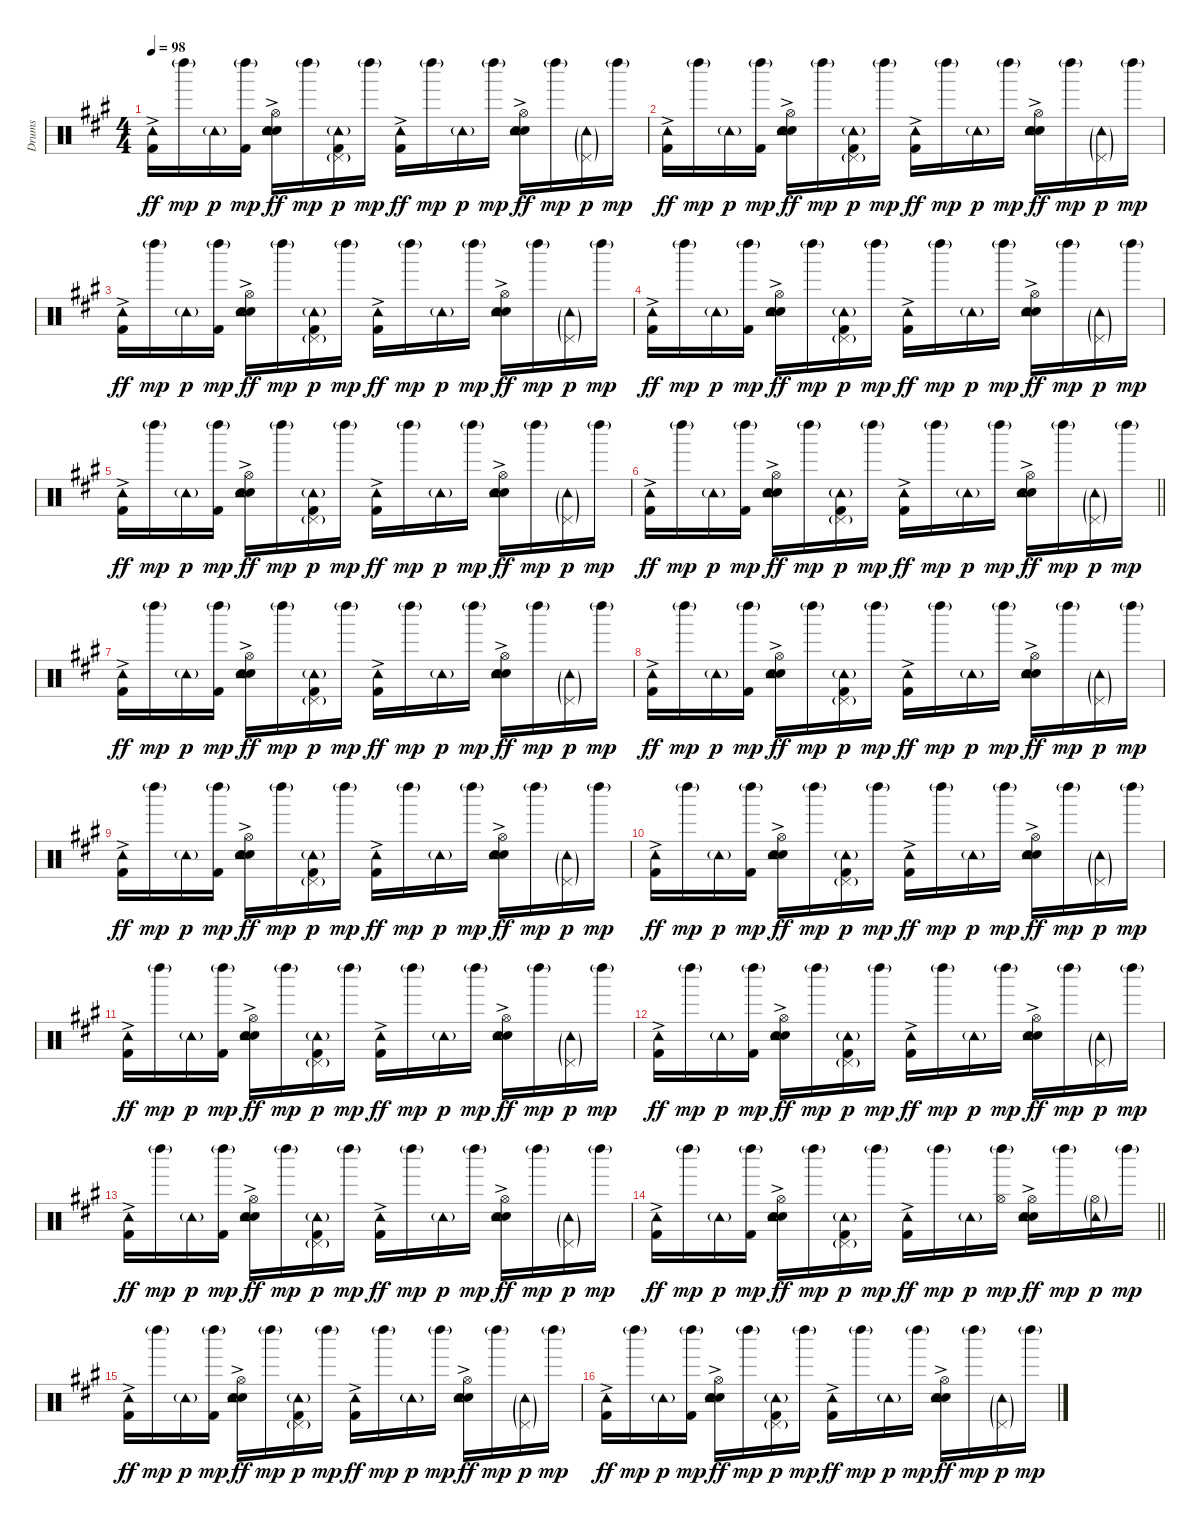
\track ("Drums" "Drums") {instrument percussion}
\staff {score}
\articulation defaults
\ts (4 4)
\tempo 98
\clef neutral
\ks a
("Kick (hit) 2"{ac} "Tambourine (hit)").16{dy ff} "Left Maraca (hit)"{g}.16{dy mp} "Tambourine (hit)"{g}.16{dy p} ("Kick (hit) 2" "Left Maraca (hit)"{g}).16{dy mp} ("Snare (hit) 2"{ac} "Electric Snare (hit)" "Hi-Hat (open)" "Tambourine (hit)").16{dy ff} "Left Maraca (hit)"{g}.16{dy mp} ("Kick (hit) 2" "Pedal Hi-Hat (hit)"{g} "Tambourine (hit)"{g}).16{dy p} "Left Maraca (hit)"{g}.16{dy mp} ("Kick (hit) 2"{ac} "Tambourine (hit)").16{dy ff} "Left Maraca (hit)"{g}.16{dy mp} "Tambourine (hit)"{g}.16{dy p} "Left Maraca (hit)"{g}.16{dy mp} ("Snare (hit) 2"{ac} "Electric Snare (hit)" "Hi-Hat (open)" "Tambourine (hit)").16{dy ff} "Left Maraca (hit)"{g}.16{dy mp} ("Pedal Hi-Hat (hit)"{g} "Tambourine (hit)"{g}).16{dy p} "Left Maraca (hit)"{g}.16{dy mp} |
("Kick (hit) 2"{ac} "Tambourine (hit)").16{dy ff} "Left Maraca (hit)"{g}.16{dy mp} "Tambourine (hit)"{g}.16{dy p} ("Kick (hit) 2" "Left Maraca (hit)"{g}).16{dy mp} ("Snare (hit) 2"{ac} "Electric Snare (hit)" "Hi-Hat (open)" "Tambourine (hit)").16{dy ff} "Left Maraca (hit)"{g}.16{dy mp} ("Kick (hit) 2" "Pedal Hi-Hat (hit)"{g} "Tambourine (hit)"{g}).16{dy p} "Left Maraca (hit)"{g}.16{dy mp} ("Kick (hit) 2"{ac} "Tambourine (hit)").16{dy ff} "Left Maraca (hit)"{g}.16{dy mp} "Tambourine (hit)"{g}.16{dy p} "Left Maraca (hit)"{g}.16{dy mp} ("Snare (hit) 2"{ac} "Electric Snare (hit)" "Hi-Hat (open)" "Tambourine (hit)").16{dy ff} "Left Maraca (hit)"{g}.16{dy mp} ("Pedal Hi-Hat (hit)"{g} "Tambourine (hit)"{g}).16{dy p} "Left Maraca (hit)"{g}.16{dy mp} |
("Kick (hit) 2"{ac} "Tambourine (hit)").16{dy ff} "Left Maraca (hit)"{g}.16{dy mp} "Tambourine (hit)"{g}.16{dy p} ("Kick (hit) 2" "Left Maraca (hit)"{g}).16{dy mp} ("Snare (hit) 2"{ac} "Electric Snare (hit)" "Hi-Hat (open)" "Tambourine (hit)").16{dy ff} "Left Maraca (hit)"{g}.16{dy mp} ("Kick (hit) 2" "Pedal Hi-Hat (hit)"{g} "Tambourine (hit)"{g}).16{dy p} "Left Maraca (hit)"{g}.16{dy mp} ("Kick (hit) 2"{ac} "Tambourine (hit)").16{dy ff} "Left Maraca (hit)"{g}.16{dy mp} "Tambourine (hit)"{g}.16{dy p} "Left Maraca (hit)"{g}.16{dy mp} ("Snare (hit) 2"{ac} "Electric Snare (hit)" "Hi-Hat (open)" "Tambourine (hit)").16{dy ff} "Left Maraca (hit)"{g}.16{dy mp} ("Pedal Hi-Hat (hit)"{g} "Tambourine (hit)"{g}).16{dy p} "Left Maraca (hit)"{g}.16{dy mp} |
("Kick (hit) 2"{ac} "Tambourine (hit)").16{dy ff} "Left Maraca (hit)"{g}.16{dy mp} "Tambourine (hit)"{g}.16{dy p} ("Kick (hit) 2" "Left Maraca (hit)"{g}).16{dy mp} ("Snare (hit) 2"{ac} "Electric Snare (hit)" "Hi-Hat (open)" "Tambourine (hit)").16{dy ff} "Left Maraca (hit)"{g}.16{dy mp} ("Kick (hit) 2" "Pedal Hi-Hat (hit)"{g} "Tambourine (hit)"{g}).16{dy p} "Left Maraca (hit)"{g}.16{dy mp} ("Kick (hit) 2"{ac} "Tambourine (hit)").16{dy ff} "Left Maraca (hit)"{g}.16{dy mp} "Tambourine (hit)"{g}.16{dy p} "Left Maraca (hit)"{g}.16{dy mp} ("Snare (hit) 2"{ac} "Electric Snare (hit)" "Hi-Hat (open)" "Tambourine (hit)").16{dy ff} "Left Maraca (hit)"{g}.16{dy mp} ("Pedal Hi-Hat (hit)"{g} "Tambourine (hit)"{g}).16{dy p} "Left Maraca (hit)"{g}.16{dy mp} |
("Kick (hit) 2"{ac} "Tambourine (hit)").16{dy ff} "Left Maraca (hit)"{g}.16{dy mp} "Tambourine (hit)"{g}.16{dy p} ("Kick (hit) 2" "Left Maraca (hit)"{g}).16{dy mp} ("Snare (hit) 2"{ac} "Electric Snare (hit)" "Hi-Hat (open)" "Tambourine (hit)").16{dy ff} "Left Maraca (hit)"{g}.16{dy mp} ("Kick (hit) 2" "Pedal Hi-Hat (hit)"{g} "Tambourine (hit)"{g}).16{dy p} "Left Maraca (hit)"{g}.16{dy mp} ("Kick (hit) 2"{ac} "Tambourine (hit)").16{dy ff} "Left Maraca (hit)"{g}.16{dy mp} "Tambourine (hit)"{g}.16{dy p} "Left Maraca (hit)"{g}.16{dy mp} ("Snare (hit) 2"{ac} "Electric Snare (hit)" "Hi-Hat (open)" "Tambourine (hit)").16{dy ff} "Left Maraca (hit)"{g}.16{dy mp} ("Pedal Hi-Hat (hit)"{g} "Tambourine (hit)"{g}).16{dy p} "Left Maraca (hit)"{g}.16{dy mp} |
\barLineRight lightlight
("Kick (hit) 2"{ac} "Tambourine (hit)").16{dy ff} "Left Maraca (hit)"{g}.16{dy mp} "Tambourine (hit)"{g}.16{dy p} ("Kick (hit) 2" "Left Maraca (hit)"{g}).16{dy mp} ("Snare (hit) 2"{ac} "Electric Snare (hit)" "Hi-Hat (open)" "Tambourine (hit)").16{dy ff} "Left Maraca (hit)"{g}.16{dy mp} ("Kick (hit) 2" "Pedal Hi-Hat (hit)"{g} "Tambourine (hit)"{g}).16{dy p} "Left Maraca (hit)"{g}.16{dy mp} ("Kick (hit) 2"{ac} "Tambourine (hit)").16{dy ff} "Left Maraca (hit)"{g}.16{dy mp} "Tambourine (hit)"{g}.16{dy p} "Left Maraca (hit)"{g}.16{dy mp} ("Snare (hit) 2"{ac} "Electric Snare (hit)" "Hi-Hat (open)" "Tambourine (hit)").16{dy ff} "Left Maraca (hit)"{g}.16{dy mp} ("Pedal Hi-Hat (hit)"{g} "Tambourine (hit)"{g}).16{dy p} "Left Maraca (hit)"{g}.16{dy mp} |
("Kick (hit) 2"{ac} "Tambourine (hit)").16{dy ff} "Left Maraca (hit)"{g}.16{dy mp} "Tambourine (hit)"{g}.16{dy p} ("Kick (hit) 2" "Left Maraca (hit)"{g}).16{dy mp} ("Snare (hit) 2"{ac} "Electric Snare (hit)" "Hi-Hat (open)" "Tambourine (hit)").16{dy ff} "Left Maraca (hit)"{g}.16{dy mp} ("Kick (hit) 2" "Pedal Hi-Hat (hit)"{g} "Tambourine (hit)"{g}).16{dy p} "Left Maraca (hit)"{g}.16{dy mp} ("Kick (hit) 2"{ac} "Tambourine (hit)").16{dy ff} "Left Maraca (hit)"{g}.16{dy mp} "Tambourine (hit)"{g}.16{dy p} "Left Maraca (hit)"{g}.16{dy mp} ("Snare (hit) 2"{ac} "Electric Snare (hit)" "Hi-Hat (open)" "Tambourine (hit)").16{dy ff} "Left Maraca (hit)"{g}.16{dy mp} ("Pedal Hi-Hat (hit)"{g} "Tambourine (hit)"{g}).16{dy p} "Left Maraca (hit)"{g}.16{dy mp} |
("Kick (hit) 2"{ac} "Tambourine (hit)").16{dy ff} "Left Maraca (hit)"{g}.16{dy mp} "Tambourine (hit)"{g}.16{dy p} ("Kick (hit) 2" "Left Maraca (hit)"{g}).16{dy mp} ("Snare (hit) 2"{ac} "Electric Snare (hit)" "Hi-Hat (open)" "Tambourine (hit)").16{dy ff} "Left Maraca (hit)"{g}.16{dy mp} ("Kick (hit) 2" "Pedal Hi-Hat (hit)"{g} "Tambourine (hit)"{g}).16{dy p} "Left Maraca (hit)"{g}.16{dy mp} ("Kick (hit) 2"{ac} "Tambourine (hit)").16{dy ff} "Left Maraca (hit)"{g}.16{dy mp} "Tambourine (hit)"{g}.16{dy p} "Left Maraca (hit)"{g}.16{dy mp} ("Snare (hit) 2"{ac} "Electric Snare (hit)" "Hi-Hat (open)" "Tambourine (hit)").16{dy ff} "Left Maraca (hit)"{g}.16{dy mp} ("Pedal Hi-Hat (hit)"{g} "Tambourine (hit)"{g}).16{dy p} "Left Maraca (hit)"{g}.16{dy mp} |
("Kick (hit) 2"{ac} "Tambourine (hit)").16{dy ff} "Left Maraca (hit)"{g}.16{dy mp} "Tambourine (hit)"{g}.16{dy p} ("Kick (hit) 2" "Left Maraca (hit)"{g}).16{dy mp} ("Snare (hit) 2"{ac} "Electric Snare (hit)" "Hi-Hat (open)" "Tambourine (hit)").16{dy ff} "Left Maraca (hit)"{g}.16{dy mp} ("Kick (hit) 2" "Pedal Hi-Hat (hit)"{g} "Tambourine (hit)"{g}).16{dy p} "Left Maraca (hit)"{g}.16{dy mp} ("Kick (hit) 2"{ac} "Tambourine (hit)").16{dy ff} "Left Maraca (hit)"{g}.16{dy mp} "Tambourine (hit)"{g}.16{dy p} "Left Maraca (hit)"{g}.16{dy mp} ("Snare (hit) 2"{ac} "Electric Snare (hit)" "Hi-Hat (open)" "Tambourine (hit)").16{dy ff} "Left Maraca (hit)"{g}.16{dy mp} ("Pedal Hi-Hat (hit)"{g} "Tambourine (hit)"{g}).16{dy p} "Left Maraca (hit)"{g}.16{dy mp} |
("Kick (hit) 2"{ac} "Tambourine (hit)").16{dy ff} "Left Maraca (hit)"{g}.16{dy mp} "Tambourine (hit)"{g}.16{dy p} ("Kick (hit) 2" "Left Maraca (hit)"{g}).16{dy mp} ("Snare (hit) 2"{ac} "Electric Snare (hit)" "Hi-Hat (open)" "Tambourine (hit)").16{dy ff} "Left Maraca (hit)"{g}.16{dy mp} ("Kick (hit) 2" "Pedal Hi-Hat (hit)"{g} "Tambourine (hit)"{g}).16{dy p} "Left Maraca (hit)"{g}.16{dy mp} ("Kick (hit) 2"{ac} "Tambourine (hit)").16{dy ff} "Left Maraca (hit)"{g}.16{dy mp} "Tambourine (hit)"{g}.16{dy p} "Left Maraca (hit)"{g}.16{dy mp} ("Snare (hit) 2"{ac} "Electric Snare (hit)" "Hi-Hat (open)" "Tambourine (hit)").16{dy ff} "Left Maraca (hit)"{g}.16{dy mp} ("Pedal Hi-Hat (hit)"{g} "Tambourine (hit)"{g}).16{dy p} "Left Maraca (hit)"{g}.16{dy mp} |
("Kick (hit) 2"{ac} "Tambourine (hit)").16{dy ff} "Left Maraca (hit)"{g}.16{dy mp} "Tambourine (hit)"{g}.16{dy p} ("Kick (hit) 2" "Left Maraca (hit)"{g}).16{dy mp} ("Snare (hit) 2"{ac} "Electric Snare (hit)" "Hi-Hat (open)" "Tambourine (hit)").16{dy ff} "Left Maraca (hit)"{g}.16{dy mp} ("Kick (hit) 2" "Pedal Hi-Hat (hit)"{g} "Tambourine (hit)"{g}).16{dy p} "Left Maraca (hit)"{g}.16{dy mp} ("Kick (hit) 2"{ac} "Tambourine (hit)").16{dy ff} "Left Maraca (hit)"{g}.16{dy mp} "Tambourine (hit)"{g}.16{dy p} "Left Maraca (hit)"{g}.16{dy mp} ("Snare (hit) 2"{ac} "Electric Snare (hit)" "Hi-Hat (open)" "Tambourine (hit)").16{dy ff} "Left Maraca (hit)"{g}.16{dy mp} ("Pedal Hi-Hat (hit)"{g} "Tambourine (hit)"{g}).16{dy p} "Left Maraca (hit)"{g}.16{dy mp} |
("Kick (hit) 2"{ac} "Tambourine (hit)").16{dy ff} "Left Maraca (hit)"{g}.16{dy mp} "Tambourine (hit)"{g}.16{dy p} ("Kick (hit) 2" "Left Maraca (hit)"{g}).16{dy mp} ("Snare (hit) 2"{ac} "Electric Snare (hit)" "Hi-Hat (open)" "Tambourine (hit)").16{dy ff} "Left Maraca (hit)"{g}.16{dy mp} ("Kick (hit) 2" "Pedal Hi-Hat (hit)"{g} "Tambourine (hit)"{g}).16{dy p} "Left Maraca (hit)"{g}.16{dy mp} ("Kick (hit) 2"{ac} "Tambourine (hit)").16{dy ff} "Left Maraca (hit)"{g}.16{dy mp} "Tambourine (hit)"{g}.16{dy p} "Left Maraca (hit)"{g}.16{dy mp} ("Snare (hit) 2"{ac} "Electric Snare (hit)" "Hi-Hat (open)" "Tambourine (hit)").16{dy ff} "Left Maraca (hit)"{g}.16{dy mp} ("Pedal Hi-Hat (hit)"{g} "Tambourine (hit)"{g}).16{dy p} "Left Maraca (hit)"{g}.16{dy mp} |
("Kick (hit) 2"{ac} "Tambourine (hit)").16{dy ff} "Left Maraca (hit)"{g}.16{dy mp} "Tambourine (hit)"{g}.16{dy p} ("Kick (hit) 2" "Left Maraca (hit)"{g}).16{dy mp} ("Snare (hit) 2"{ac} "Electric Snare (hit)" "Hi-Hat (open)" "Tambourine (hit)").16{dy ff} "Left Maraca (hit)"{g}.16{dy mp} ("Kick (hit) 2" "Pedal Hi-Hat (hit)"{g} "Tambourine (hit)"{g}).16{dy p} "Left Maraca (hit)"{g}.16{dy mp} ("Kick (hit) 2"{ac} "Tambourine (hit)").16{dy ff} "Left Maraca (hit)"{g}.16{dy mp} "Tambourine (hit)"{g}.16{dy p} "Left Maraca (hit)"{g}.16{dy mp} ("Snare (hit) 2"{ac} "Electric Snare (hit)" "Hi-Hat (open)" "Tambourine (hit)").16{dy ff} "Left Maraca (hit)"{g}.16{dy mp} ("Pedal Hi-Hat (hit)"{g} "Tambourine (hit)"{g}).16{dy p} "Left Maraca (hit)"{g}.16{dy mp} |
\barLineRight lightlight
("Kick (hit) 2"{ac} "Tambourine (hit)").16{dy ff} "Left Maraca (hit)"{g}.16{dy mp} "Tambourine (hit)"{g}.16{dy p} ("Kick (hit) 2" "Left Maraca (hit)"{g}).16{dy mp} ("Snare (hit) 2"{ac} "Electric Snare (hit)" "Hi-Hat (open)" "Tambourine (hit)").16{dy ff} "Left Maraca (hit)"{g}.16{dy mp} ("Kick (hit) 2" "Pedal Hi-Hat (hit)"{g} "Tambourine (hit)"{g}).16{dy p} "Left Maraca (hit)"{g}.16{dy mp} ("Kick (hit) 2"{ac} "Tambourine (hit)").16{dy ff} "Left Maraca (hit)"{g}.16{dy mp} "Tambourine (hit)"{g}.16{dy p} ("Hi-Hat (open)" "Left Maraca (hit)"{g}).16{dy mp} ("Snare (hit) 2"{ac} "Electric Snare (hit)" "Hi-Hat (open)" "Tambourine (hit)").16{dy ff} "Left Maraca (hit)"{g}.16{dy mp} ("Hi-Hat (open)"{g} "Tambourine (hit)"{g}).16{dy p} "Left Maraca (hit)"{g}.16{dy mp} |
("Kick (hit) 2"{ac} "Tambourine (hit)").16{dy ff} "Left Maraca (hit)"{g}.16{dy mp} "Tambourine (hit)"{g}.16{dy p} ("Kick (hit) 2" "Left Maraca (hit)"{g}).16{dy mp} ("Snare (hit) 2"{ac} "Electric Snare (hit)" "Hi-Hat (open)" "Tambourine (hit)").16{dy ff} "Left Maraca (hit)"{g}.16{dy mp} ("Kick (hit) 2" "Pedal Hi-Hat (hit)"{g} "Tambourine (hit)"{g}).16{dy p} "Left Maraca (hit)"{g}.16{dy mp} ("Kick (hit) 2"{ac} "Tambourine (hit)").16{dy ff} "Left Maraca (hit)"{g}.16{dy mp} "Tambourine (hit)"{g}.16{dy p} "Left Maraca (hit)"{g}.16{dy mp} ("Snare (hit) 2"{ac} "Electric Snare (hit)" "Hi-Hat (open)" "Tambourine (hit)").16{dy ff} "Left Maraca (hit)"{g}.16{dy mp} ("Pedal Hi-Hat (hit)"{g} "Tambourine (hit)"{g}).16{dy p} "Left Maraca (hit)"{g}.16{dy mp} |
("Kick (hit) 2"{ac} "Tambourine (hit)").16{dy ff} "Left Maraca (hit)"{g}.16{dy mp} "Tambourine (hit)"{g}.16{dy p} ("Kick (hit) 2" "Left Maraca (hit)"{g}).16{dy mp} ("Snare (hit) 2"{ac} "Electric Snare (hit)" "Hi-Hat (open)" "Tambourine (hit)").16{dy ff} "Left Maraca (hit)"{g}.16{dy mp} ("Kick (hit) 2" "Pedal Hi-Hat (hit)"{g} "Tambourine (hit)"{g}).16{dy p} "Left Maraca (hit)"{g}.16{dy mp} ("Kick (hit) 2"{ac} "Tambourine (hit)").16{dy ff} "Left Maraca (hit)"{g}.16{dy mp} "Tambourine (hit)"{g}.16{dy p} "Left Maraca (hit)"{g}.16{dy mp} ("Snare (hit) 2"{ac} "Electric Snare (hit)" "Hi-Hat (open)" "Tambourine (hit)").16{dy ff} "Left Maraca (hit)"{g}.16{dy mp} ("Pedal Hi-Hat (hit)"{g} "Tambourine (hit)"{g}).16{dy p} "Left Maraca (hit)"{g}.16{dy mp}
